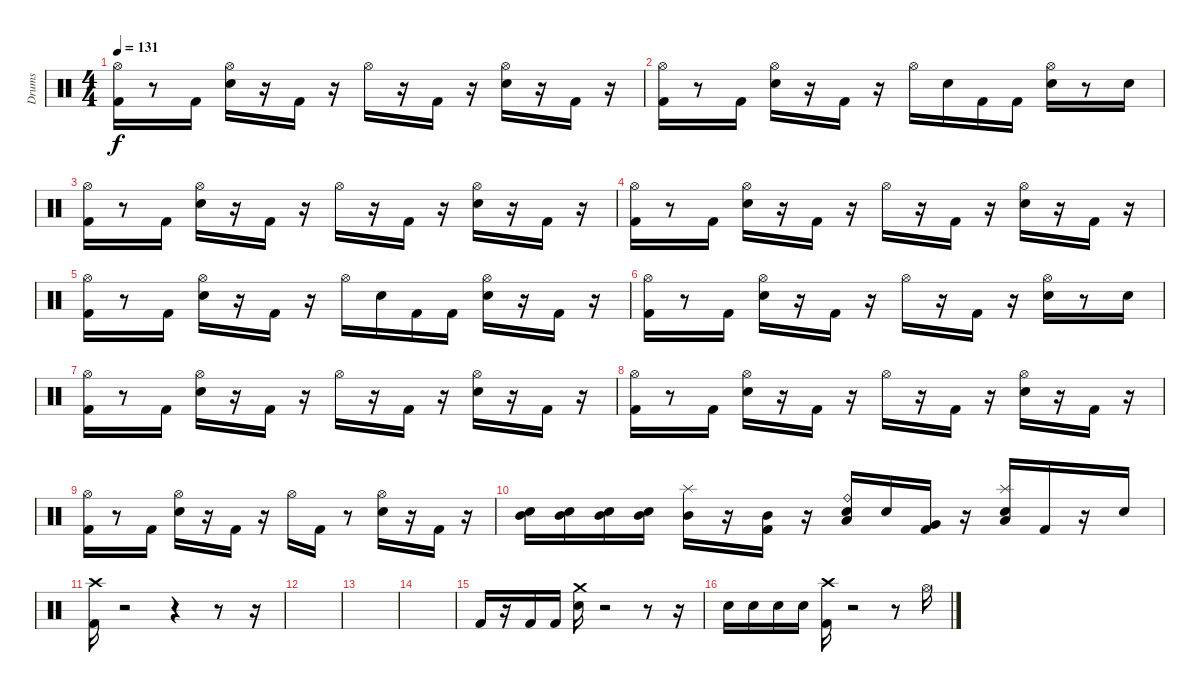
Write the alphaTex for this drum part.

\track ("Drums" "Drums") {instrument percussion}
\staff {score}
\articulation defaults
\ts (4 4)
\tempo 131
\clef neutral
\ks c
("Hi-Hat (open)" "Kick (hit) 2").16{dy f} r.8 "Kick (hit) 2".16 ("Hi-Hat (open)" "Snare (hit) 2").16 r.16 "Kick (hit) 2".16 r.16 "Hi-Hat (open)".16 r.16 "Kick (hit) 2".16 r.16 ("Hi-Hat (open)" "Snare (hit) 2").16 r.16 "Kick (hit) 2".16 r.16 |
("Hi-Hat (open)" "Kick (hit) 2").16 r.8 "Kick (hit) 2".16 ("Hi-Hat (open)" "Snare (hit) 2").16 r.16 "Kick (hit) 2".16 r.16 "Hi-Hat (open)".16 "Snare (hit) 2".16 "Kick (hit) 2".16 "Kick (hit) 2".16 ("Hi-Hat (open)" "Snare (hit) 2").16 r.8 "Snare (hit) 2".16 |
("Hi-Hat (open)" "Kick (hit) 2").16 r.8 "Kick (hit) 2".16 ("Hi-Hat (open)" "Snare (hit) 2").16 r.16 "Kick (hit) 2".16 r.16 "Hi-Hat (open)".16 r.16 "Kick (hit) 2".16 r.16 ("Hi-Hat (open)" "Snare (hit) 2").16 r.16 "Kick (hit) 2".16 r.16 |
("Hi-Hat (open)" "Kick (hit) 2").16 r.8 "Kick (hit) 2".16 ("Hi-Hat (open)" "Snare (hit) 2").16 r.16 "Kick (hit) 2".16 r.16 "Hi-Hat (open)".16 r.16 "Kick (hit) 2".16 r.16 ("Hi-Hat (open)" "Snare (hit) 2").16 r.16 "Kick (hit) 2".16 r.16 |
("Hi-Hat (open)" "Kick (hit) 2").16 r.8 "Kick (hit) 2".16 ("Hi-Hat (open)" "Snare (hit) 2").16 r.16 "Kick (hit) 2".16 r.16 "Hi-Hat (open)".16 "Snare (hit) 2".16 "Kick (hit) 2".16 "Kick (hit) 2".16 ("Hi-Hat (open)" "Snare (hit) 2").16 r.16 "Kick (hit) 2".16 r.16 |
("Hi-Hat (open)" "Kick (hit) 2").16 r.8 "Kick (hit) 2".16 ("Hi-Hat (open)" "Snare (hit) 2").16 r.16 "Kick (hit) 2".16 r.16 "Hi-Hat (open)".16 r.16 "Kick (hit) 2".16 r.16 ("Hi-Hat (open)" "Snare (hit) 2").16 r.8 "Snare (hit) 2".16 |
("Hi-Hat (open)" "Kick (hit) 2").16 r.8 "Kick (hit) 2".16 ("Hi-Hat (open)" "Snare (hit) 2").16 r.16 "Kick (hit) 2".16 r.16 "Hi-Hat (open)".16 r.16 "Kick (hit) 2".16 r.16 ("Hi-Hat (open)" "Snare (hit) 2").16 r.16 "Kick (hit) 2".16 r.16 |
("Hi-Hat (open)" "Kick (hit) 2").16 r.8 "Kick (hit) 2".16 ("Hi-Hat (open)" "Snare (hit) 2").16 r.16 "Kick (hit) 2".16 r.16 "Hi-Hat (open)".16 r.16 "Kick (hit) 2".16 r.16 ("Hi-Hat (open)" "Snare (hit) 2").16 r.16 "Kick (hit) 2".16 r.16 |
("Hi-Hat (open)" "Kick (hit) 2").16 r.8 "Kick (hit) 2".16 ("Hi-Hat (open)" "Snare (hit) 2").16 r.16 "Kick (hit) 2".16 r.16 "Hi-Hat (open)".16 "Kick (hit) 2".16 r.8 ("Hi-Hat (open)" "Snare (hit) 2").16 r.16 "Kick (hit) 2".16 r.16 |
("Mid Tom (hit)" "Snare (hit) 2").16 ("Mid Tom (hit)" "Snare (hit) 2").16 ("Mid Tom (hit)" "Snare (hit) 2").16 ("Mid Tom (hit)" "Snare (hit) 2").16 ("Mid Tom (hit)" "Splash (hit)").16 r.16 ("Mid Tom (hit)" "Kick (hit) 2").16 r.16 ("Ride (bell)" "Low Tom (hit)" "Snare (hit) 2").16 "Snare (hit) 2".16 ("Very Low Tom (hit)" "Kick (hit) 2").16 r.16 ("Low Floor Tom (hit)" "Splash (hit)" "Snare (hit) 2").16 "Kick (hit) 2".16 r.16 "Snare (hit) 2".16 |
("Crash high (hit)" "Kick (hit) 2").16 r.2 r.4 r.8 r.16 |
|
|
|
"Kick (hit) 2".16 r.16 "Kick (hit) 2".16 "Kick (hit) 2".16 ("Crash medium (hit)" "Snare (hit) 2").16 r.2 r.8 r.16 |
"Snare (hit) 2".16 "Snare (hit) 2".16 "Snare (hit) 2".16 "Snare (hit) 2".16 ("Crash high (hit)" "Kick (hit) 2").16 r.2 r.8 "Hi-Hat (open)".16
